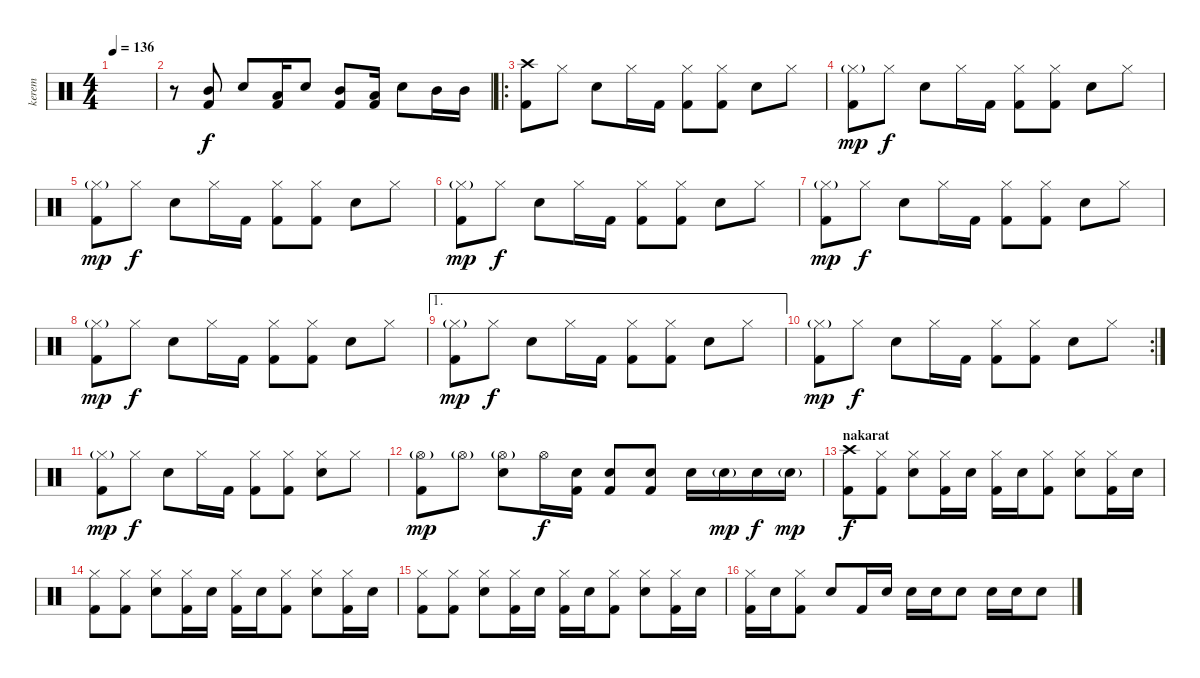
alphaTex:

\track ("kerem" "kerem") {instrument percussion}
\staff {score}
\articulation defaults
\ts (4 4)
\tempo 136
\clef neutral
\ks c
|
r.8 ("Mid Tom (hit)" "Kick (hit) 2").8 "Electric Snare (hit)".8 ("Low Tom (hit)" "Kick (hit) 2").16 "Electric Snare (hit)".8 ("Mid Tom (hit)" "Kick (hit) 2").8 ("Low Tom (hit)" "Kick (hit) 2").16 "Electric Snare (hit)".8 "Mid Tom (hit)".16 "Mid Tom (hit)".16 |
\ro
("Kick (hit) 2" "Crash high (hit)").8 "Hi-Hat (closed)".8 "Electric Snare (hit)".8 "Hi-Hat (closed)".16 "Kick (hit) 2".16 ("Kick (hit) 2" "Hi-Hat (closed)").8 ("Kick (hit) 2" "Hi-Hat (closed)").8 "Electric Snare (hit)".8 "Hi-Hat (closed)".8 |
("Kick (hit) 2" "Hi-Hat (closed)"{g}).8{dy mp} "Hi-Hat (closed)".8{dy f} "Electric Snare (hit)".8 "Hi-Hat (closed)".16 "Kick (hit) 2".16 ("Kick (hit) 2" "Hi-Hat (closed)").8 ("Kick (hit) 2" "Hi-Hat (closed)").8 "Electric Snare (hit)".8 "Hi-Hat (closed)".8 |
("Kick (hit) 2" "Hi-Hat (closed)"{g}).8{dy mp} "Hi-Hat (closed)".8{dy f} "Electric Snare (hit)".8 "Hi-Hat (closed)".16 "Kick (hit) 2".16 ("Kick (hit) 2" "Hi-Hat (closed)").8 ("Kick (hit) 2" "Hi-Hat (closed)").8 "Electric Snare (hit)".8 "Hi-Hat (closed)".8 |
("Kick (hit) 2" "Hi-Hat (closed)"{g}).8{dy mp} "Hi-Hat (closed)".8{dy f} "Electric Snare (hit)".8 "Hi-Hat (closed)".16 "Kick (hit) 2".16 ("Kick (hit) 2" "Hi-Hat (closed)").8 ("Kick (hit) 2" "Hi-Hat (closed)").8 "Electric Snare (hit)".8 "Hi-Hat (closed)".8 |
("Kick (hit) 2" "Hi-Hat (closed)"{g}).8{dy mp} "Hi-Hat (closed)".8{dy f} "Electric Snare (hit)".8 "Hi-Hat (closed)".16 "Kick (hit) 2".16 ("Kick (hit) 2" "Hi-Hat (closed)").8 ("Kick (hit) 2" "Hi-Hat (closed)").8 "Electric Snare (hit)".8 "Hi-Hat (closed)".8 |
("Kick (hit) 2" "Hi-Hat (closed)"{g}).8{dy mp} "Hi-Hat (closed)".8{dy f} "Electric Snare (hit)".8 "Hi-Hat (closed)".16 "Kick (hit) 2".16 ("Kick (hit) 2" "Hi-Hat (closed)").8 ("Kick (hit) 2" "Hi-Hat (closed)").8 "Electric Snare (hit)".8 "Hi-Hat (closed)".8 |
\ae 1
("Kick (hit) 2" "Hi-Hat (closed)"{g}).8{dy mp} "Hi-Hat (closed)".8{dy f} "Electric Snare (hit)".8 "Hi-Hat (closed)".16 "Kick (hit) 2".16 ("Kick (hit) 2" "Hi-Hat (closed)").8 ("Kick (hit) 2" "Hi-Hat (closed)").8 "Electric Snare (hit)".8 "Hi-Hat (closed)".8 |
\rc 2
("Kick (hit) 2" "Hi-Hat (closed)"{g}).8{dy mp} "Hi-Hat (closed)".8{dy f} "Electric Snare (hit)".8 "Hi-Hat (closed)".16 "Kick (hit) 2".16 ("Kick (hit) 2" "Hi-Hat (closed)").8 ("Kick (hit) 2" "Hi-Hat (closed)").8 "Electric Snare (hit)".8 "Hi-Hat (closed)".8 |
("Kick (hit) 2" "Hi-Hat (closed)"{g}).8{dy mp} "Hi-Hat (closed)".8{dy f} "Electric Snare (hit)".8 "Hi-Hat (closed)".16 "Kick (hit) 2".16 ("Kick (hit) 2" "Hi-Hat (closed)").8 ("Kick (hit) 2" "Hi-Hat (closed)").8 ("Electric Snare (hit)" "Hi-Hat (closed)").8 "Hi-Hat (closed)".8 |
("Kick (hit) 2" "Hi-Hat (open)"{g}).8{dy mp} "Hi-Hat (open)"{g}.8 ("Electric Snare (hit)" "Hi-Hat (open)"{g}).8 "Hi-Hat (open)".16{dy f} ("Kick (hit) 2" "Electric Snare (hit)").16 ("Kick (hit) 2" "Electric Snare (hit)").8 ("Kick (hit) 2" "Electric Snare (hit)").8 "Electric Snare (hit)".16 "Electric Snare (hit)"{g}.16{dy mp} "Electric Snare (hit)".16{dy f} "Electric Snare (hit)"{g}.16{dy mp} |
\section ("" "nakarat")
("Kick (hit) 2" "Crash high (hit)").8{dy f} ("Kick (hit) 2" "Hi-Hat (closed)").8 ("Electric Snare (hit)" "Hi-Hat (closed)").8 ("Kick (hit) 2" "Hi-Hat (closed)").16 "Electric Snare (hit)".16 ("Kick (hit) 2" "Hi-Hat (closed)").16 "Electric Snare (hit)".16 ("Kick (hit) 2" "Hi-Hat (closed)").8 ("Electric Snare (hit)" "Hi-Hat (closed)").8 ("Kick (hit) 2" "Hi-Hat (closed)").16 "Electric Snare (hit)".16 |
("Kick (hit) 2" "Hi-Hat (closed)").8 ("Kick (hit) 2" "Hi-Hat (closed)").8 ("Electric Snare (hit)" "Hi-Hat (closed)").8 ("Kick (hit) 2" "Hi-Hat (closed)").16 "Electric Snare (hit)".16 ("Kick (hit) 2" "Hi-Hat (closed)").16 "Electric Snare (hit)".16 ("Kick (hit) 2" "Hi-Hat (closed)").8 ("Electric Snare (hit)" "Hi-Hat (closed)").8 ("Kick (hit) 2" "Hi-Hat (closed)").16 "Electric Snare (hit)".16 |
("Kick (hit) 2" "Hi-Hat (closed)").8 ("Kick (hit) 2" "Hi-Hat (closed)").8 ("Electric Snare (hit)" "Hi-Hat (closed)").8 ("Kick (hit) 2" "Hi-Hat (closed)").16 "Electric Snare (hit)".16 ("Kick (hit) 2" "Hi-Hat (closed)").16 "Electric Snare (hit)".16 ("Kick (hit) 2" "Hi-Hat (closed)").8 ("Electric Snare (hit)" "Hi-Hat (closed)").8 ("Kick (hit) 2" "Hi-Hat (closed)").16 "Electric Snare (hit)".16 |
("Kick (hit) 2" "Hi-Hat (closed)").16 "Electric Snare (hit)".16 ("Kick (hit) 2" "Hi-Hat (closed)").8 "Electric Snare (hit)".8 "Kick (hit) 2".16 "Electric Snare (hit)".16 "Electric Snare (hit)".16 "Electric Snare (hit)".16 "Electric Snare (hit)".8 "Electric Snare (hit)".16 "Electric Snare (hit)".16 "Electric Snare (hit)".8
